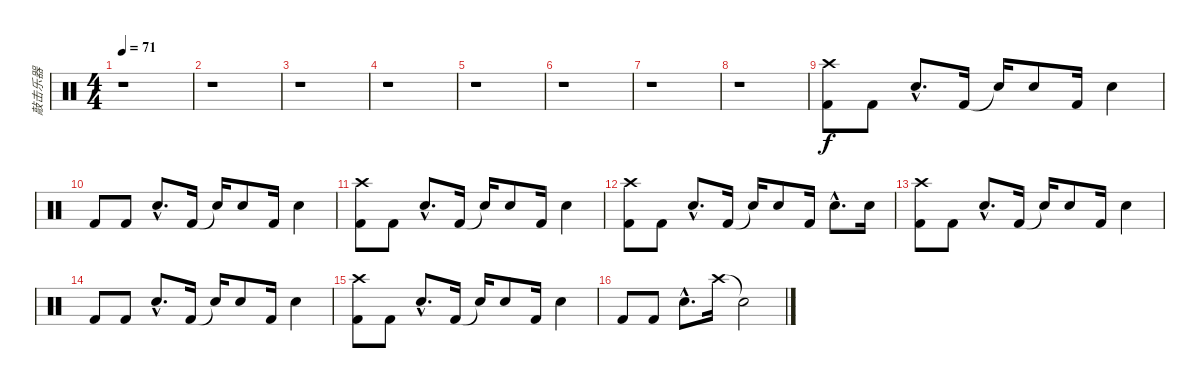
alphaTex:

\track ("敲击乐器" "敲击乐器") {instrument percussion}
\staff {score}
\articulation defaults
\ts (4 4)
\tempo 71
\clef neutral
\ks c
r.1{dy f} |
r.1 |
r.1 |
r.1 |
r.1 |
r.1 |
r.1 |
r.1 |
("Crash high (hit)" "Kick (hit) 2").8 "Kick (hit) 2".8 "Electric Snare (hit)"{hac}.8{d} "Kick (hit) 2".16 "Snare (hit)"{t}.16 "Electric Snare (hit)".8 "Kick (hit) 2".16 "Electric Snare (hit)".4 |
"Kick (hit) 2".8 "Kick (hit) 2".8 "Electric Snare (hit)"{hac}.8{d} "Kick (hit) 2".16 "Snare (hit)"{t}.16 "Electric Snare (hit)".8 "Kick (hit) 2".16 "Electric Snare (hit)".4 |
("Crash high (hit)" "Kick (hit) 2").8 "Kick (hit) 2".8 "Electric Snare (hit)"{hac}.8{d} "Kick (hit) 2".16 "Snare (hit)"{t}.16 "Electric Snare (hit)".8 "Kick (hit) 2".16 "Electric Snare (hit)".4 |
("Crash high (hit)" "Kick (hit) 2").8 "Kick (hit) 2".8 "Electric Snare (hit)"{hac}.8{d} "Kick (hit) 2".16 "Snare (hit)"{t}.16 "Electric Snare (hit)".8 "Kick (hit) 2".16 "Electric Snare (hit)"{hac}.8{d} "Electric Snare (hit)".16 |
("Crash high (hit)" "Kick (hit) 2").8 "Kick (hit) 2".8 "Electric Snare (hit)"{hac}.8{d} "Kick (hit) 2".16 "Snare (hit)"{t}.16 "Electric Snare (hit)".8 "Kick (hit) 2".16 "Electric Snare (hit)".4 |
"Kick (hit) 2".8 "Kick (hit) 2".8 "Electric Snare (hit)"{hac}.8{d} "Kick (hit) 2".16 "Snare (hit)"{t}.16 "Electric Snare (hit)".8 "Kick (hit) 2".16 "Electric Snare (hit)".4 |
("Crash high (hit)" "Kick (hit) 2").8 "Kick (hit) 2".8 "Electric Snare (hit)"{hac}.8{d} "Kick (hit) 2".16 "Snare (hit)"{t}.16 "Electric Snare (hit)".8 "Kick (hit) 2".16 "Electric Snare (hit)".4 |
"Kick (hit) 2".8 "Kick (hit) 2".8 "Electric Snare (hit)"{hac}.8{d} "Crash high (hit)".16 "Snare (hit)"{t}.2
